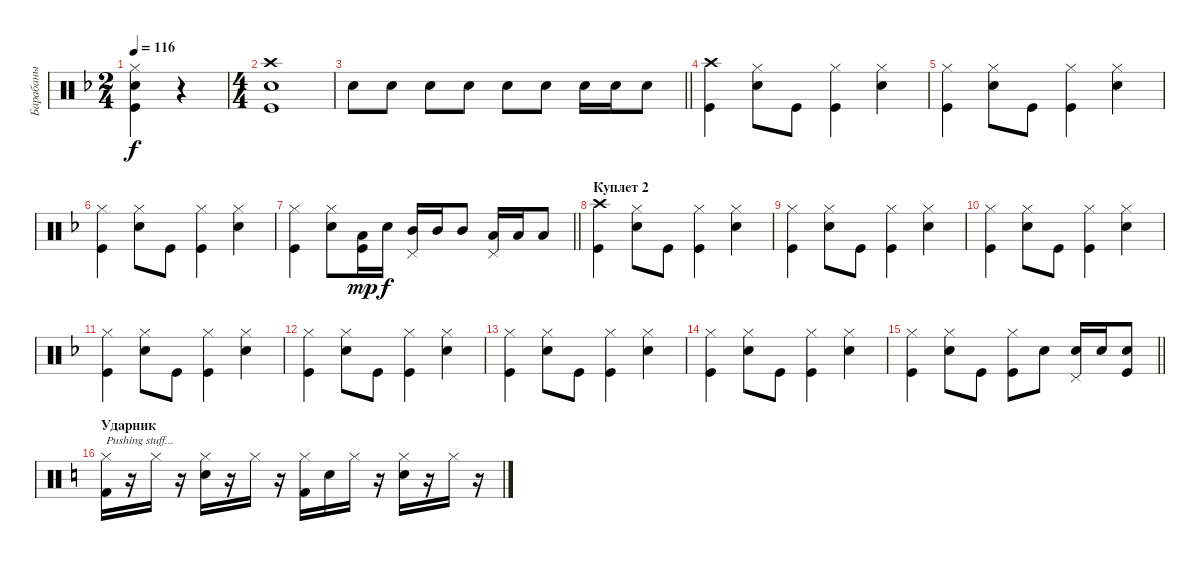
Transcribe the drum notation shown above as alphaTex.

\track ("Барабаны" "Барабаны") {instrument percussion}
\staff {score}
\articulation defaults
\ts (2 4)
\tempo 116
\clef neutral
\ks dminor
("Snare (hit) 2" "Kick (hit)" "Hi-Hat (closed)").4{dy f} r.4 |
\ts (4 4)
("Kick (hit)" "Crash high (hit)" "Snare (hit) 2").1 |
\barLineRight lightlight "Snare (hit) 2".8 "Snare (hit) 2".8 "Snare (hit) 2".8 "Snare (hit) 2".8 "Snare (hit) 2".8 "Snare (hit) 2".8 "Snare (hit) 2".16 "Snare (hit) 2".16 "Snare (hit) 2".8
|
("Kick (hit)" "Crash high (hit)").4 ("Hi-Hat (closed)" "Snare (hit) 2").8 "Kick (hit)".8 ("Hi-Hat (closed)" "Kick (hit)").4 ("Hi-Hat (closed)" "Snare (hit) 2").4 |
("Hi-Hat (closed)" "Kick (hit)").4 ("Hi-Hat (closed)" "Snare (hit) 2").8 "Kick (hit)".8 ("Hi-Hat (closed)" "Kick (hit)").4 ("Hi-Hat (closed)" "Snare (hit) 2").4 |
("Hi-Hat (closed)" "Kick (hit)").4 ("Hi-Hat (closed)" "Snare (hit) 2").8 "Kick (hit)".8 ("Hi-Hat (closed)" "Kick (hit)").4 ("Hi-Hat (closed)" "Snare (hit) 2").4 |
\barLineRight lightlight
("Hi-Hat (closed)" "Kick (hit)").4 ("Hi-Hat (closed)" "Snare (hit) 2").8 ("Low Floor Tom (hit)" "Kick (hit)").16{dy mp} "Snare (hit) 2".16{dy f} ("Mid Tom (hit)" "Pedal Hi-Hat (hit)").16 "Mid Tom (hit)".16 "Mid Tom (hit)".8 ("Pedal Hi-Hat (hit)" "Low Tom (hit)").16 "Low Tom (hit)".16 "Low Tom (hit)".8 |
\section ("" "Куплет 2")
("Crash high (hit)" "Kick (hit)").4 ("Hi-Hat (closed)" "Snare (hit) 2").8 "Kick (hit)".8 ("Hi-Hat (closed)" "Kick (hit)").4 ("Hi-Hat (closed)" "Snare (hit) 2").4 |
("Hi-Hat (closed)" "Kick (hit)").4 ("Hi-Hat (closed)" "Snare (hit) 2").8 "Kick (hit)".8 ("Hi-Hat (closed)" "Kick (hit)").4 ("Hi-Hat (closed)" "Snare (hit) 2").4 |
("Hi-Hat (closed)" "Kick (hit)").4 ("Hi-Hat (closed)" "Snare (hit) 2").8 "Kick (hit)".8 ("Hi-Hat (closed)" "Kick (hit)").4 ("Hi-Hat (closed)" "Snare (hit) 2").4 |
("Hi-Hat (closed)" "Kick (hit)").4 ("Hi-Hat (closed)" "Snare (hit) 2").8 "Kick (hit)".8 ("Hi-Hat (closed)" "Kick (hit)").4 ("Hi-Hat (closed)" "Snare (hit) 2").4 |
("Hi-Hat (closed)" "Kick (hit)").4 ("Hi-Hat (closed)" "Snare (hit) 2").8 "Kick (hit)".8 ("Hi-Hat (closed)" "Kick (hit)").4 ("Hi-Hat (closed)" "Snare (hit) 2").4 |
("Hi-Hat (closed)" "Kick (hit)").4 ("Hi-Hat (closed)" "Snare (hit) 2").8 "Kick (hit)".8 ("Hi-Hat (closed)" "Kick (hit)").4 ("Hi-Hat (closed)" "Snare (hit) 2").4 |
("Hi-Hat (closed)" "Kick (hit)").4 ("Hi-Hat (closed)" "Snare (hit) 2").8 "Kick (hit)".8 ("Hi-Hat (closed)" "Kick (hit)").4 ("Hi-Hat (closed)" "Snare (hit) 2").4 |
\barLineRight lightlight
("Hi-Hat (closed)" "Kick (hit)").4 ("Hi-Hat (closed)" "Snare (hit) 2").8 "Kick (hit)".8 ("Hi-Hat (closed)" "Kick (hit)").8 "Snare (hit) 2".8 ("Snare (hit) 2" "Pedal Hi-Hat (hit)").16 "Snare (hit) 2".16 ("Snare (hit) 2" "Kick (hit)").8 |
\section ("" "Ударник")
\ks c
("Hi-Hat (closed)" "Kick (hit) 2").16{txt "Pushing stuff..."} r.16 "Hi-Hat (closed)".16 r.16 ("Hi-Hat (closed)" "Electric Snare (hit)").16 r.16 "Hi-Hat (closed)".16 r.16 ("Hi-Hat (closed)" "Kick (hit) 2").16 "Electric Snare (hit)".16 "Hi-Hat (closed)".16 r.16 ("Hi-Hat (closed)" "Electric Snare (hit)").16 r.16 "Hi-Hat (closed)".16 r.16
